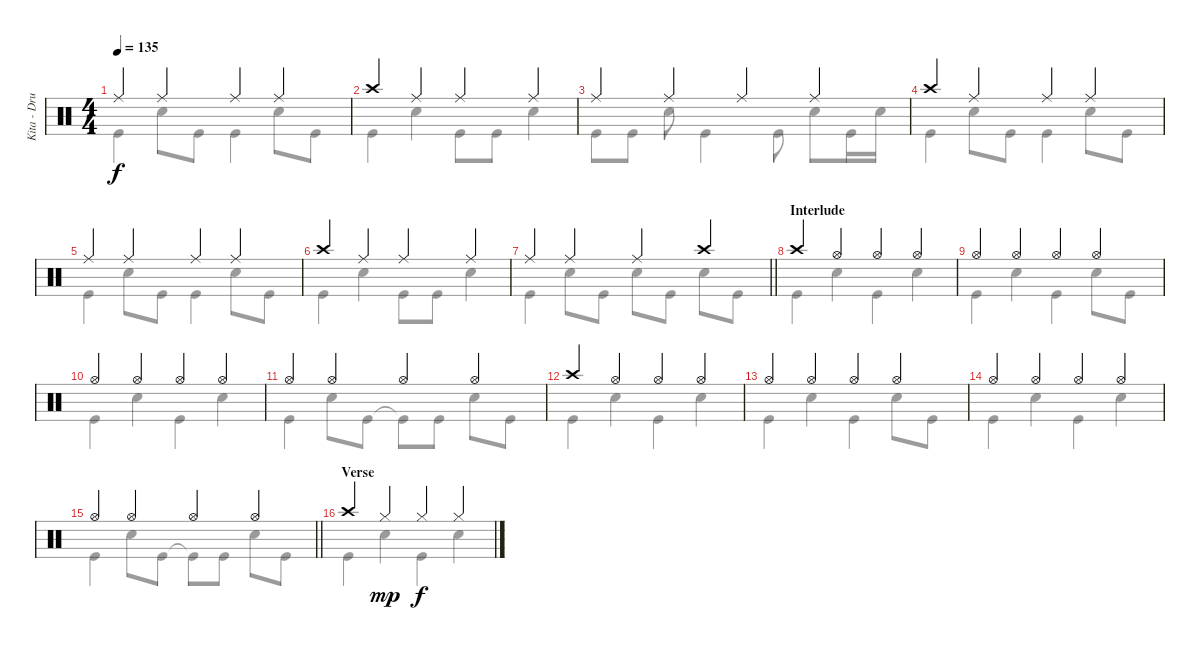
\track ("Kita - Drums" "Kita - Dru") {instrument percussion}
\staff {score}
\articulation defaults
\voice
\ts (4 4)
\tempo 135
\clef neutral
\ks c "Ride (middle)".4{dy f} "Ride (middle)".4 "Ride (middle)".4 "Ride (middle)".4
|
"Crash high (hit)".4 "Ride (middle)".4 "Ride (middle)".4 "Ride (middle)".4 |
"Ride (middle)".4 "Ride (middle)".4 "Ride (middle)".4 "Ride (middle)".4 |
"Crash high (hit)".4 "Ride (middle)".4 "Ride (middle)".4 "Ride (middle)".4 |
"Ride (middle)".4 "Ride (middle)".4 "Ride (middle)".4 "Ride (middle)".4 |
"Crash high (hit)".4 "Ride (middle)".4 "Ride (middle)".4 "Ride (middle)".4 |
\barLineRight lightlight "Ride (middle)".4 "Ride (middle)".4 "Ride (middle)".4 "Crash high (hit)".4
|
\section ("" "Interlude")
"Crash high (hit)".4 "Hi-Hat (open)".4 "Hi-Hat (open)".4 "Hi-Hat (open)".4 |
"Hi-Hat (open)".4 "Hi-Hat (open)".4 "Hi-Hat (open)".4 "Hi-Hat (open)".4 |
"Hi-Hat (open)".4 "Hi-Hat (open)".4 "Hi-Hat (open)".4 "Hi-Hat (open)".4 |
"Hi-Hat (open)".4 "Hi-Hat (open)".4 "Hi-Hat (open)".4 "Hi-Hat (open)".4 |
"Crash high (hit)".4 "Hi-Hat (open)".4 "Hi-Hat (open)".4 "Hi-Hat (open)".4 |
"Hi-Hat (open)".4 "Hi-Hat (open)".4 "Hi-Hat (open)".4 "Hi-Hat (open)".4 |
"Hi-Hat (open)".4 "Hi-Hat (open)".4 "Hi-Hat (open)".4 "Hi-Hat (open)".4 |
\barLineRight lightlight "Hi-Hat (open)".4 "Hi-Hat (open)".4 "Hi-Hat (open)".4 "Hi-Hat (open)".4
|
\section ("" "Verse")
"Crash high (hit)".4 "Hi-Hat (closed)".4{dy mp} "Hi-Hat (closed)".4{dy f} "Hi-Hat (closed)".4
\voice
\clef neutral
\ottava regular
\simile none
\ks c "Kick (hit)".4{dy f} "Snare (hit) 2".8 "Kick (hit)".8 "Kick (hit)".4 "Snare (hit) 2".8 "Kick (hit)".8
|
"Kick (hit)".4 "Snare (hit) 2".4 "Kick (hit)".8 "Kick (hit)".8 "Snare (hit) 2".4 |
"Kick (hit)".8 "Kick (hit)".8 "Snare (hit) 2".8 "Kick (hit)".4 "Kick (hit)".8 "Snare (hit) 2".8 "Kick (hit)".16 "Snare (hit) 2".16 |
"Kick (hit)".4 "Snare (hit) 2".8 "Kick (hit)".8 "Kick (hit)".4 "Snare (hit) 2".8 "Kick (hit)".8 |
"Kick (hit)".4 "Snare (hit) 2".8 "Kick (hit)".8 "Kick (hit)".4 "Snare (hit) 2".8 "Kick (hit)".8 |
"Kick (hit)".4 "Snare (hit) 2".4 "Kick (hit)".8 "Kick (hit)".8 "Snare (hit) 2".4 |
\barLineRight lightlight "Kick (hit)".4 "Snare (hit) 2".8 "Kick (hit)".8 "Snare (hit) 2".8 "Kick (hit)".8 "Snare (hit) 2".8 "Kick (hit)".8
|
"Kick (hit)".4 "Snare (hit) 2".4 "Kick (hit)".4 "Snare (hit) 2".4 |
"Kick (hit)".4 "Snare (hit) 2".4 "Kick (hit)".4 "Snare (hit) 2".8 "Kick (hit)".8 |
"Kick (hit)".4 "Snare (hit) 2".4 "Kick (hit)".4 "Snare (hit) 2".4 |
"Kick (hit)".4 "Snare (hit) 2".8 "Kick (hit)".8 "Kick (hit)"{t}.8 "Kick (hit)".8 "Snare (hit) 2".8 "Kick (hit)".8 |
"Kick (hit)".4 "Snare (hit) 2".4 "Kick (hit)".4 "Snare (hit) 2".4 |
"Kick (hit)".4 "Snare (hit) 2".4 "Kick (hit)".4 "Snare (hit) 2".8 "Kick (hit)".8 |
"Kick (hit)".4 "Snare (hit) 2".4 "Kick (hit)".4 "Snare (hit) 2".4 |
\barLineRight lightlight "Kick (hit)".4 "Snare (hit) 2".8 "Kick (hit)".8 "Kick (hit)"{t}.8 "Kick (hit)".8 "Snare (hit) 2".8 "Kick (hit)".8
|
"Kick (hit)".4 "Snare (hit) 2".4 "Kick (hit)".4 "Snare (hit) 2".4
